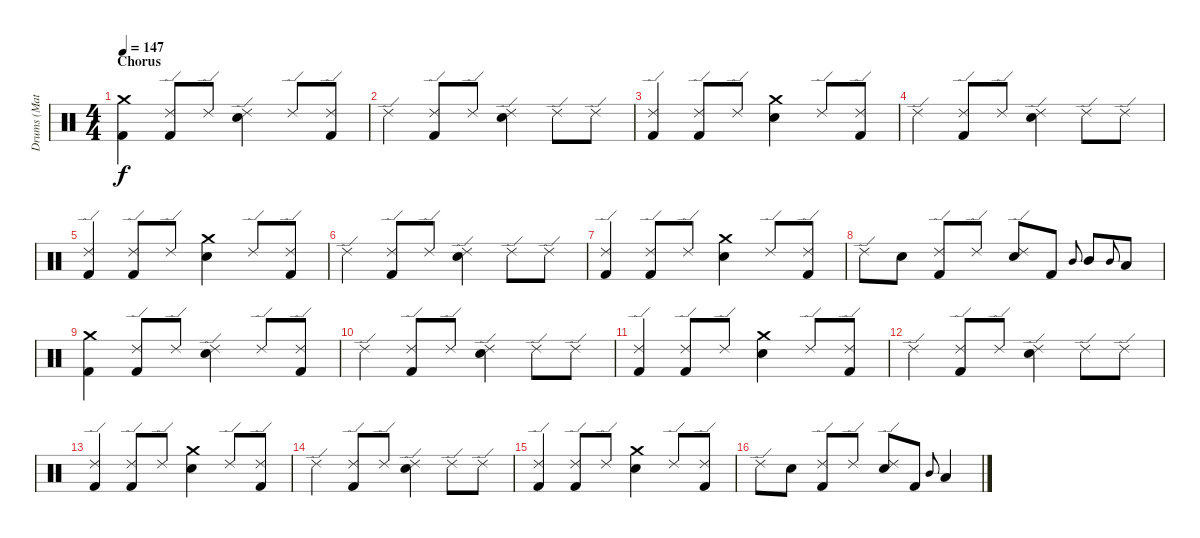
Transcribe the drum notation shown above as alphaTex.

\track ("Drums (Matt Laug)" "Drums (Mat") {instrument percussion}
\staff {score}
\articulation defaults
\ts (4 4)
\section ("" "Chorus")
\tempo 147
\clef neutral
\ks c
("Crash medium (hit)" "Kick (hit) 2").4{dy f} ("Ride (edge) 2" "Kick (hit) 2").8 "Ride (edge) 2".8 ("Ride (edge) 2" "Electric Snare (hit)").4 "Ride (edge) 2".8 ("Ride (edge) 2" "Kick (hit) 2").8 |
"Ride (edge) 2".4 ("Ride (edge) 2" "Kick (hit) 2").8 "Ride (edge) 2".8 ("Ride (edge) 2" "Electric Snare (hit)").4 "Ride (edge) 2".8 "Ride (edge) 2".8 |
("Ride (edge) 2" "Kick (hit) 2").4 ("Ride (edge) 2" "Kick (hit) 2").8 "Ride (edge) 2".8 ("Crash medium (hit)" "Electric Snare (hit)").4 "Ride (edge) 2".8 ("Ride (edge) 2" "Kick (hit) 2").8 |
"Ride (edge) 2".4 ("Ride (edge) 2" "Kick (hit) 2").8 "Ride (edge) 2".8 ("Ride (edge) 2" "Electric Snare (hit)").4 "Ride (edge) 2".8 "Ride (edge) 2".8 |
("Ride (edge) 2" "Kick (hit) 2").4 ("Ride (edge) 2" "Kick (hit) 2").8 "Ride (edge) 2".8 ("Crash medium (hit)" "Electric Snare (hit)").4 "Ride (edge) 2".8 ("Ride (edge) 2" "Kick (hit) 2").8 |
"Ride (edge) 2".4 ("Ride (edge) 2" "Kick (hit) 2").8 "Ride (edge) 2".8 ("Ride (edge) 2" "Electric Snare (hit)").4 "Ride (edge) 2".8 "Ride (edge) 2".8 |
("Ride (edge) 2" "Kick (hit) 2").4 ("Ride (edge) 2" "Kick (hit) 2").8 "Ride (edge) 2".8 ("Crash medium (hit)" "Electric Snare (hit)").4 "Ride (edge) 2".8 ("Ride (edge) 2" "Kick (hit) 2").8 |
"Ride (edge) 2".8 "Electric Snare (hit)".8 ("Ride (edge) 2" "Kick (hit) 2").8 "Ride (edge) 2".8 ("Ride (edge) 2" "Electric Snare (hit)").8 "Kick (hit) 2".8 "Mid Tom (hit)".8{gr onbeat} "Mid Tom (hit)".8 "Mid Tom (hit)".8{gr onbeat} "Low Tom (hit)".8 |
("Crash medium (hit)" "Kick (hit) 2").4 ("Ride (edge) 2" "Kick (hit) 2").8 "Ride (edge) 2".8 ("Ride (edge) 2" "Electric Snare (hit)").4 "Ride (edge) 2".8 ("Ride (edge) 2" "Kick (hit) 2").8 |
"Ride (edge) 2".4 ("Ride (edge) 2" "Kick (hit) 2").8 "Ride (edge) 2".8 ("Ride (edge) 2" "Electric Snare (hit)").4 "Ride (edge) 2".8 "Ride (edge) 2".8 |
("Ride (edge) 2" "Kick (hit) 2").4 ("Ride (edge) 2" "Kick (hit) 2").8 "Ride (edge) 2".8 ("Crash medium (hit)" "Electric Snare (hit)").4 "Ride (edge) 2".8 ("Ride (edge) 2" "Kick (hit) 2").8 |
"Ride (edge) 2".4 ("Ride (edge) 2" "Kick (hit) 2").8 "Ride (edge) 2".8 ("Ride (edge) 2" "Electric Snare (hit)").4 "Ride (edge) 2".8 "Ride (edge) 2".8 |
("Ride (edge) 2" "Kick (hit) 2").4 ("Ride (edge) 2" "Kick (hit) 2").8 "Ride (edge) 2".8 ("Crash medium (hit)" "Electric Snare (hit)").4 "Ride (edge) 2".8 ("Ride (edge) 2" "Kick (hit) 2").8 |
"Ride (edge) 2".4 ("Ride (edge) 2" "Kick (hit) 2").8 "Ride (edge) 2".8 ("Ride (edge) 2" "Electric Snare (hit)").4 "Ride (edge) 2".8 "Ride (edge) 2".8 |
("Ride (edge) 2" "Kick (hit) 2").4 ("Ride (edge) 2" "Kick (hit) 2").8 "Ride (edge) 2".8 ("Crash medium (hit)" "Electric Snare (hit)").4 "Ride (edge) 2".8 ("Ride (edge) 2" "Kick (hit) 2").8 |
"Ride (edge) 2".8 "Electric Snare (hit)".8 ("Ride (edge) 2" "Kick (hit) 2").8 "Ride (edge) 2".8 ("Ride (edge) 2" "Electric Snare (hit)").8 "Kick (hit) 2".8 "Mid Tom (hit)".8{gr onbeat} "Low Tom (hit)".4
